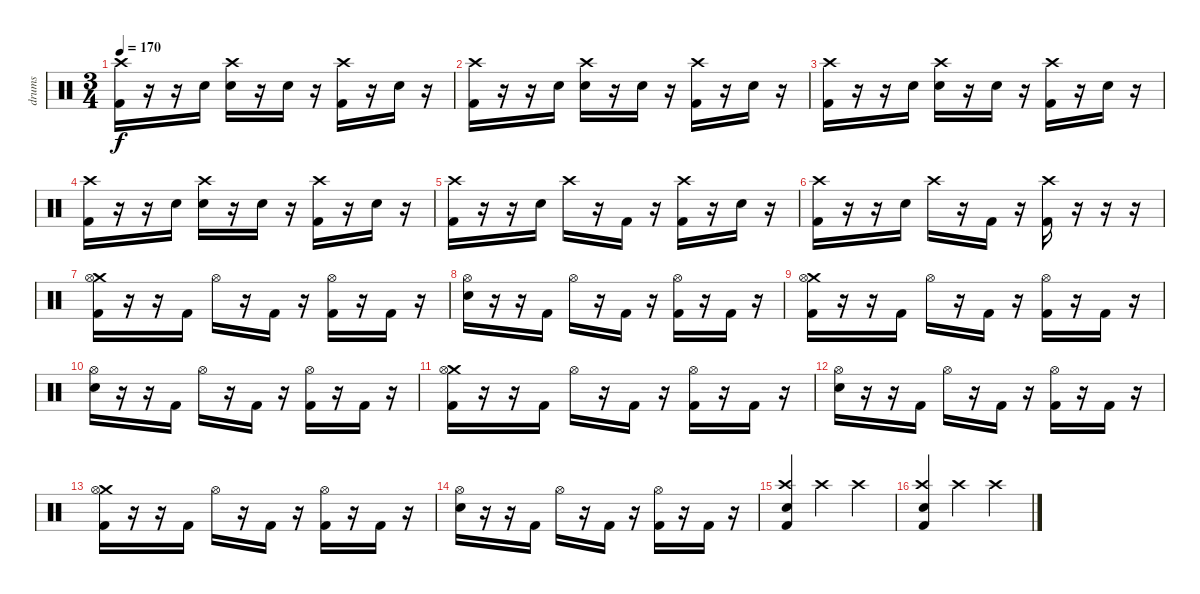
\track ("drums" "drums") {instrument percussion}
\staff {score}
\articulation defaults
\ts (3 4)
\tempo 170
\clef neutral
\ks c
("Kick (hit) 2" "Crash high (hit)").16{dy f} r.16 r.16 "Snare (hit) 2".16 ("Crash high (hit)" "Snare (hit) 2").16 r.16 "Snare (hit) 2".16 r.16 ("Crash high (hit)" "Kick (hit) 2").16 r.16 "Snare (hit) 2".16 r.16 |
("Kick (hit) 2" "Crash high (hit)").16 r.16 r.16 "Snare (hit) 2".16 ("Crash high (hit)" "Snare (hit) 2").16 r.16 "Snare (hit) 2".16 r.16 ("Crash high (hit)" "Kick (hit) 2").16 r.16 "Snare (hit) 2".16 r.16 |
("Kick (hit) 2" "Crash high (hit)").16 r.16 r.16 "Snare (hit) 2".16 ("Crash high (hit)" "Snare (hit) 2").16 r.16 "Snare (hit) 2".16 r.16 ("Crash high (hit)" "Kick (hit) 2").16 r.16 "Snare (hit) 2".16 r.16 |
("Kick (hit) 2" "Crash high (hit)").16 r.16 r.16 "Snare (hit) 2".16 ("Crash high (hit)" "Snare (hit) 2").16 r.16 "Snare (hit) 2".16 r.16 ("Crash high (hit)" "Kick (hit) 2").16 r.16 "Snare (hit) 2".16 r.16 |
("Kick (hit) 2" "Crash high (hit)").16 r.16 r.16 "Snare (hit) 2".16 "Crash high (hit)".16 r.16 "Kick (hit) 2".16 r.16 ("Crash high (hit)" "Kick (hit) 2").16 r.16 "Snare (hit) 2".16 r.16 |
("Kick (hit) 2" "Crash high (hit)").16 r.16 r.16 "Snare (hit) 2".16 "Crash high (hit)".16 r.16 "Kick (hit) 2".16 r.16 ("Crash high (hit)" "Kick (hit) 2").16 r.16 r.16 r.16 |
("Crash medium (hit)" "Hi-Hat (open)" "Kick (hit) 2").16 r.16 r.16 "Kick (hit) 2".16 "Hi-Hat (open)".16 r.16 "Kick (hit) 2".16 r.16 ("Hi-Hat (open)" "Kick (hit) 2").16 r.16 "Kick (hit) 2".16 r.16 |
("Snare (hit) 2" "Hi-Hat (open)").16 r.16 r.16 "Kick (hit) 2".16 "Hi-Hat (open)".16 r.16 "Kick (hit) 2".16 r.16 ("Hi-Hat (open)" "Kick (hit) 2").16 r.16 "Kick (hit) 2".16 r.16 |
("Crash medium (hit)" "Hi-Hat (open)" "Kick (hit) 2").16 r.16 r.16 "Kick (hit) 2".16 "Hi-Hat (open)".16 r.16 "Kick (hit) 2".16 r.16 ("Hi-Hat (open)" "Kick (hit) 2").16 r.16 "Kick (hit) 2".16 r.16 |
("Snare (hit) 2" "Hi-Hat (open)").16 r.16 r.16 "Kick (hit) 2".16 "Hi-Hat (open)".16 r.16 "Kick (hit) 2".16 r.16 ("Hi-Hat (open)" "Kick (hit) 2").16 r.16 "Kick (hit) 2".16 r.16 |
("Crash medium (hit)" "Hi-Hat (open)" "Kick (hit) 2").16 r.16 r.16 "Kick (hit) 2".16 "Hi-Hat (open)".16 r.16 "Kick (hit) 2".16 r.16 ("Hi-Hat (open)" "Kick (hit) 2").16 r.16 "Kick (hit) 2".16 r.16 |
("Snare (hit) 2" "Hi-Hat (open)").16 r.16 r.16 "Kick (hit) 2".16 "Hi-Hat (open)".16 r.16 "Kick (hit) 2".16 r.16 ("Hi-Hat (open)" "Kick (hit) 2").16 r.16 "Kick (hit) 2".16 r.16 |
("Crash medium (hit)" "Hi-Hat (open)" "Kick (hit) 2").16 r.16 r.16 "Kick (hit) 2".16 "Hi-Hat (open)".16 r.16 "Kick (hit) 2".16 r.16 ("Hi-Hat (open)" "Kick (hit) 2").16 r.16 "Kick (hit) 2".16 r.16 |
("Snare (hit) 2" "Hi-Hat (open)").16 r.16 r.16 "Kick (hit) 2".16 "Hi-Hat (open)".16 r.16 "Kick (hit) 2".16 r.16 ("Hi-Hat (open)" "Kick (hit) 2").16 r.16 "Kick (hit) 2".16 r.16 |
("Kick (hit) 2" "Snare (hit) 2" "Crash high (hit)").4 "Crash high (hit)".4 "Crash high (hit)".4 |
("Kick (hit) 2" "Snare (hit) 2" "Crash high (hit)").4 "Crash high (hit)".4 "Crash high (hit)".4
